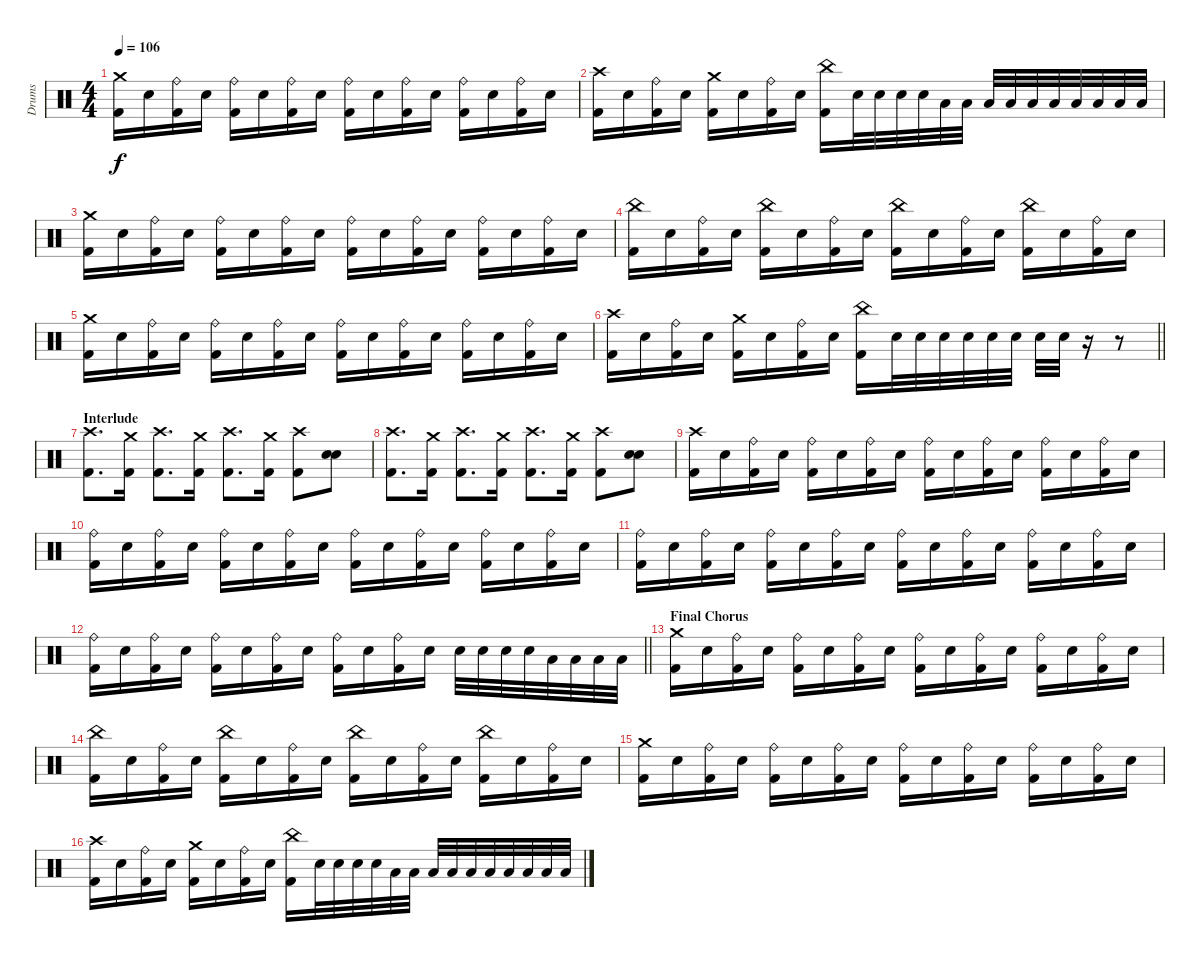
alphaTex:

\track ("Drums" "Drums") {instrument percussion}
\staff {score}
\articulation defaults
\ts (4 4)
\tempo 106
\clef neutral
\ks c
("Crash medium (hit)" "Kick (hit) 2").16{dy f} "Electric Snare (hit)".16 ("Ride (bell)" "Kick (hit) 2").16 "Electric Snare (hit)".16 ("Ride (bell)" "Kick (hit) 2").16 "Electric Snare (hit)".16 ("Ride (bell)" "Kick (hit) 2").16 "Electric Snare (hit)".16 ("Ride (bell)" "Kick (hit) 2").16 "Electric Snare (hit)".16 ("Ride (bell)" "Kick (hit) 2").16 "Electric Snare (hit)".16 ("Ride (bell)" "Kick (hit) 2").16 "Electric Snare (hit)".16 ("Ride (bell)" "Kick (hit) 2").16 "Electric Snare (hit)".16 |
("Crash high (hit)" "Kick (hit) 2").16 "Electric Snare (hit)".16 ("Ride (bell)" "Kick (hit) 2").16 "Electric Snare (hit)".16 ("Crash medium (hit)" "Kick (hit) 2").16 "Electric Snare (hit)".16 ("Ride (bell)" "Kick (hit) 2").16 "Electric Snare (hit)".16 ("China (hit)" "Kick (hit) 2").16 "Electric Snare (hit)".32 "Electric Snare (hit)".32 "Electric Snare (hit)".32 "Electric Snare (hit)".32 "Low Tom (hit)".32 "Low Tom (hit)".32 "Low Tom (hit)".32 "Low Tom (hit)".32 "Low Tom (hit)".32 "Low Floor Tom (hit)".32 "Low Floor Tom (hit)".32 "Low Floor Tom (hit)".32 "Low Floor Tom (hit)".32 "Low Floor Tom (hit)".32 |
("Crash medium (hit)" "Kick (hit) 2").16 "Electric Snare (hit)".16 ("Ride (bell)" "Kick (hit) 2").16 "Electric Snare (hit)".16 ("Ride (bell)" "Kick (hit) 2").16 "Electric Snare (hit)".16 ("Ride (bell)" "Kick (hit) 2").16 "Electric Snare (hit)".16 ("Ride (bell)" "Kick (hit) 2").16 "Electric Snare (hit)".16 ("Ride (bell)" "Kick (hit) 2").16 "Electric Snare (hit)".16 ("Ride (bell)" "Kick (hit) 2").16 "Electric Snare (hit)".16 ("Ride (bell)" "Kick (hit) 2").16 "Electric Snare (hit)".16 |
("China (hit)" "Kick (hit) 2").16 "Electric Snare (hit)".16 ("Ride (bell)" "Kick (hit) 2").16 "Electric Snare (hit)".16 ("China (hit)" "Kick (hit) 2").16 "Electric Snare (hit)".16 ("Ride (bell)" "Kick (hit) 2").16 "Electric Snare (hit)".16 ("China (hit)" "Kick (hit) 2").16 "Electric Snare (hit)".16 ("Ride (bell)" "Kick (hit) 2").16 "Electric Snare (hit)".16 ("China (hit)" "Kick (hit) 2").16 "Electric Snare (hit)".16 ("Ride (bell)" "Kick (hit) 2").16 "Electric Snare (hit)".16 |
("Crash medium (hit)" "Kick (hit) 2").16 "Electric Snare (hit)".16 ("Ride (bell)" "Kick (hit) 2").16 "Electric Snare (hit)".16 ("Ride (bell)" "Kick (hit) 2").16 "Electric Snare (hit)".16 ("Ride (bell)" "Kick (hit) 2").16 "Electric Snare (hit)".16 ("Ride (bell)" "Kick (hit) 2").16 "Electric Snare (hit)".16 ("Ride (bell)" "Kick (hit) 2").16 "Electric Snare (hit)".16 ("Ride (bell)" "Kick (hit) 2").16 "Electric Snare (hit)".16 ("Ride (bell)" "Kick (hit) 2").16 "Electric Snare (hit)".16 |
\barLineRight lightlight
("Crash high (hit)" "Kick (hit) 2").16 "Electric Snare (hit)".16 ("Ride (bell)" "Kick (hit) 2").16 "Electric Snare (hit)".16 ("Crash medium (hit)" "Kick (hit) 2").16 "Electric Snare (hit)".16 ("Ride (bell)" "Kick (hit) 2").16 "Electric Snare (hit)".16 ("China (hit)" "Kick (hit) 2").16 "Electric Snare (hit)".32 "Electric Snare (hit)".32 "Electric Snare (hit)".32 "Electric Snare (hit)".32 "Electric Snare (hit)".32 "Electric Snare (hit)".32 "Electric Snare (hit)".32 "Electric Snare (hit)".32 r.16 r.8 |
\section ("" "Interlude")
("Crash high (hit)" "Kick (hit) 2").8{d} ("Crash medium (hit)" "Kick (hit) 2").16 ("Crash high (hit)" "Kick (hit) 2").8{d} ("Crash medium (hit)" "Kick (hit) 2").16 ("Crash high (hit)" "Kick (hit) 2").8{d} ("Crash medium (hit)" "Kick (hit) 2").16 ("Crash high (hit)" "Kick (hit) 2").8 ("Electric Snare (hit)" "Electric Snare (hit)").8{bu 240} |
("Crash high (hit)" "Kick (hit) 2").8{d} ("Crash medium (hit)" "Kick (hit) 2").16 ("Crash high (hit)" "Kick (hit) 2").8{d} ("Crash medium (hit)" "Kick (hit) 2").16 ("Crash high (hit)" "Kick (hit) 2").8{d} ("Crash medium (hit)" "Kick (hit) 2").16 ("Crash high (hit)" "Kick (hit) 2").8 ("Electric Snare (hit)" "Electric Snare (hit)").8{bu 240} |
("Crash high (hit)" "Kick (hit) 2").16 "Electric Snare (hit)".16 ("Ride (bell)" "Kick (hit) 2").16 "Electric Snare (hit)".16 ("Ride (bell)" "Kick (hit) 2").16 "Electric Snare (hit)".16 ("Ride (bell)" "Kick (hit) 2").16 "Electric Snare (hit)".16 ("Ride (bell)" "Kick (hit) 2").16 "Electric Snare (hit)".16 ("Ride (bell)" "Kick (hit) 2").16 "Electric Snare (hit)".16 ("Ride (bell)" "Kick (hit) 2").16 "Electric Snare (hit)".16 ("Ride (bell)" "Kick (hit) 2").16 "Electric Snare (hit)".16 |
("Ride (bell)" "Kick (hit) 2").16 "Electric Snare (hit)".16 ("Ride (bell)" "Kick (hit) 2").16 "Electric Snare (hit)".16 ("Ride (bell)" "Kick (hit) 2").16 "Electric Snare (hit)".16 ("Ride (bell)" "Kick (hit) 2").16 "Electric Snare (hit)".16 ("Ride (bell)" "Kick (hit) 2").16 "Electric Snare (hit)".16 ("Ride (bell)" "Kick (hit) 2").16 "Electric Snare (hit)".16 ("Ride (bell)" "Kick (hit) 2").16 "Electric Snare (hit)".16 ("Ride (bell)" "Kick (hit) 2").16 "Electric Snare (hit)".16 |
("Ride (bell)" "Kick (hit) 2").16 "Electric Snare (hit)".16 ("Ride (bell)" "Kick (hit) 2").16 "Electric Snare (hit)".16 ("Ride (bell)" "Kick (hit) 2").16 "Electric Snare (hit)".16 ("Ride (bell)" "Kick (hit) 2").16 "Electric Snare (hit)".16 ("Ride (bell)" "Kick (hit) 2").16 "Electric Snare (hit)".16 ("Ride (bell)" "Kick (hit) 2").16 "Electric Snare (hit)".16 ("Ride (bell)" "Kick (hit) 2").16 "Electric Snare (hit)".16 ("Ride (bell)" "Kick (hit) 2").16 "Electric Snare (hit)".16 |
\barLineRight lightlight
("Ride (bell)" "Kick (hit) 2").16 "Electric Snare (hit)".16 ("Ride (bell)" "Kick (hit) 2").16 "Electric Snare (hit)".16 ("Ride (bell)" "Kick (hit) 2").16 "Electric Snare (hit)".16 ("Ride (bell)" "Kick (hit) 2").16 "Electric Snare (hit)".16 ("Ride (bell)" "Kick (hit) 2").16 "Electric Snare (hit)".16 ("Ride (bell)" "Kick (hit) 2").16 "Electric Snare (hit)".16 "Electric Snare (hit)".32 "Electric Snare (hit)".32 "Electric Snare (hit)".32 "Electric Snare (hit)".32 "Low Tom (hit)".32 "Low Tom (hit)".32 "Low Floor Tom (hit)".32 "Low Floor Tom (hit)".32 |
\section ("" "Final Chorus")
("Crash medium (hit)" "Kick (hit) 2").16 "Electric Snare (hit)".16 ("Ride (bell)" "Kick (hit) 2").16 "Electric Snare (hit)".16 ("Ride (bell)" "Kick (hit) 2").16 "Electric Snare (hit)".16 ("Ride (bell)" "Kick (hit) 2").16 "Electric Snare (hit)".16 ("Ride (bell)" "Kick (hit) 2").16 "Electric Snare (hit)".16 ("Ride (bell)" "Kick (hit) 2").16 "Electric Snare (hit)".16 ("Ride (bell)" "Kick (hit) 2").16 "Electric Snare (hit)".16 ("Ride (bell)" "Kick (hit) 2").16 "Electric Snare (hit)".16 |
("China (hit)" "Kick (hit) 2").16 "Electric Snare (hit)".16 ("Ride (bell)" "Kick (hit) 2").16 "Electric Snare (hit)".16 ("China (hit)" "Kick (hit) 2").16 "Electric Snare (hit)".16 ("Ride (bell)" "Kick (hit) 2").16 "Electric Snare (hit)".16 ("China (hit)" "Kick (hit) 2").16 "Electric Snare (hit)".16 ("Ride (bell)" "Kick (hit) 2").16 "Electric Snare (hit)".16 ("China (hit)" "Kick (hit) 2").16 "Electric Snare (hit)".16 ("Ride (bell)" "Kick (hit) 2").16 "Electric Snare (hit)".16 |
("Crash medium (hit)" "Kick (hit) 2").16 "Electric Snare (hit)".16 ("Ride (bell)" "Kick (hit) 2").16 "Electric Snare (hit)".16 ("Ride (bell)" "Kick (hit) 2").16 "Electric Snare (hit)".16 ("Ride (bell)" "Kick (hit) 2").16 "Electric Snare (hit)".16 ("Ride (bell)" "Kick (hit) 2").16 "Electric Snare (hit)".16 ("Ride (bell)" "Kick (hit) 2").16 "Electric Snare (hit)".16 ("Ride (bell)" "Kick (hit) 2").16 "Electric Snare (hit)".16 ("Ride (bell)" "Kick (hit) 2").16 "Electric Snare (hit)".16 |
("Crash high (hit)" "Kick (hit) 2").16 "Electric Snare (hit)".16 ("Ride (bell)" "Kick (hit) 2").16 "Electric Snare (hit)".16 ("Crash medium (hit)" "Kick (hit) 2").16 "Electric Snare (hit)".16 ("Ride (bell)" "Kick (hit) 2").16 "Electric Snare (hit)".16 ("China (hit)" "Kick (hit) 2").16 "Electric Snare (hit)".32 "Electric Snare (hit)".32 "Electric Snare (hit)".32 "Electric Snare (hit)".32 "Low Tom (hit)".32 "Low Tom (hit)".32 "Low Tom (hit)".32 "Low Tom (hit)".32 "Low Tom (hit)".32 "Low Floor Tom (hit)".32 "Low Floor Tom (hit)".32 "Low Floor Tom (hit)".32 "Low Floor Tom (hit)".32 "Low Floor Tom (hit)".32
